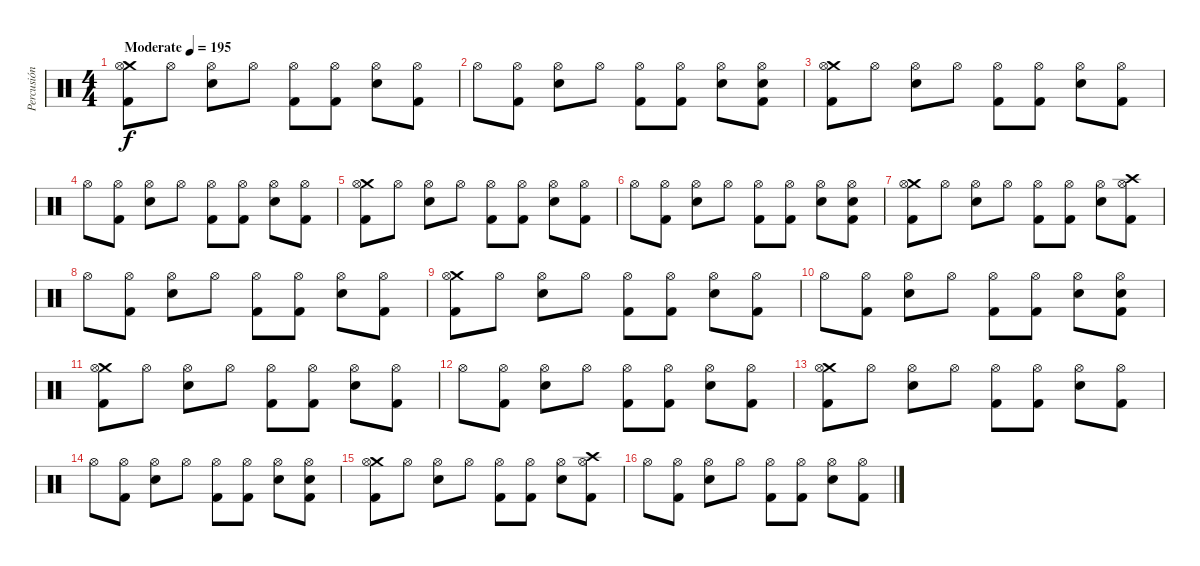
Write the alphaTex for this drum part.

\track ("Percusión" "Percusión") {instrument percussion}
\staff {score}
\articulation defaults
\ts (4 4)
\tempo (195 "Moderate")
\clef neutral
\ks c
("Crash medium (hit)" "Hi-Hat (open)" "Kick (hit) 2").8{dy f} "Hi-Hat (open)".8 ("Hi-Hat (open)" "Snare (hit) 2").8 "Hi-Hat (open)".8 ("Hi-Hat (open)" "Kick (hit) 2").8 ("Hi-Hat (open)" "Kick (hit) 2").8 ("Hi-Hat (open)" "Snare (hit) 2").8 ("Hi-Hat (open)" "Kick (hit) 2").8 |
"Hi-Hat (open)".8 ("Hi-Hat (open)" "Kick (hit) 2").8 ("Hi-Hat (open)" "Snare (hit) 2").8 "Hi-Hat (open)".8 ("Hi-Hat (open)" "Kick (hit) 2").8 ("Hi-Hat (open)" "Kick (hit) 2").8 ("Hi-Hat (open)" "Snare (hit) 2").8 ("Hi-Hat (open)" "Snare (hit) 2" "Kick (hit) 2").8 |
("Crash medium (hit)" "Hi-Hat (open)" "Kick (hit) 2").8 "Hi-Hat (open)".8 ("Hi-Hat (open)" "Snare (hit) 2").8 "Hi-Hat (open)".8 ("Hi-Hat (open)" "Kick (hit) 2").8 ("Hi-Hat (open)" "Kick (hit) 2").8 ("Hi-Hat (open)" "Snare (hit) 2").8 ("Hi-Hat (open)" "Kick (hit) 2").8 |
"Hi-Hat (open)".8 ("Hi-Hat (open)" "Kick (hit) 2").8 ("Hi-Hat (open)" "Snare (hit) 2").8 "Hi-Hat (open)".8 ("Hi-Hat (open)" "Kick (hit) 2").8 ("Hi-Hat (open)" "Kick (hit) 2").8 ("Hi-Hat (open)" "Snare (hit) 2").8 ("Hi-Hat (open)" "Kick (hit) 2").8 |
("Crash medium (hit)" "Hi-Hat (open)" "Kick (hit) 2").8 "Hi-Hat (open)".8 ("Hi-Hat (open)" "Snare (hit) 2").8 "Hi-Hat (open)".8 ("Hi-Hat (open)" "Kick (hit) 2").8 ("Hi-Hat (open)" "Kick (hit) 2").8 ("Hi-Hat (open)" "Snare (hit) 2").8 ("Hi-Hat (open)" "Kick (hit) 2").8 |
"Hi-Hat (open)".8 ("Hi-Hat (open)" "Kick (hit) 2").8 ("Hi-Hat (open)" "Snare (hit) 2").8 "Hi-Hat (open)".8 ("Hi-Hat (open)" "Kick (hit) 2").8 ("Hi-Hat (open)" "Kick (hit) 2").8 ("Hi-Hat (open)" "Snare (hit) 2").8 ("Hi-Hat (open)" "Snare (hit) 2" "Kick (hit) 2").8 |
("Crash medium (hit)" "Hi-Hat (open)" "Kick (hit) 2").8 "Hi-Hat (open)".8 ("Hi-Hat (open)" "Snare (hit) 2").8 "Hi-Hat (open)".8 ("Hi-Hat (open)" "Kick (hit) 2").8 ("Hi-Hat (open)" "Kick (hit) 2").8 ("Hi-Hat (open)" "Snare (hit) 2").8 ("Crash high (hit)" "Hi-Hat (open)" "Kick (hit) 2").8 |
"Hi-Hat (open)".8 ("Hi-Hat (open)" "Kick (hit) 2").8 ("Hi-Hat (open)" "Snare (hit) 2").8 "Hi-Hat (open)".8 ("Hi-Hat (open)" "Kick (hit) 2").8 ("Hi-Hat (open)" "Kick (hit) 2").8 ("Hi-Hat (open)" "Snare (hit) 2").8 ("Hi-Hat (open)" "Kick (hit) 2").8 |
("Crash medium (hit)" "Hi-Hat (open)" "Kick (hit) 2").8 "Hi-Hat (open)".8 ("Hi-Hat (open)" "Snare (hit) 2").8 "Hi-Hat (open)".8 ("Hi-Hat (open)" "Kick (hit) 2").8 ("Hi-Hat (open)" "Kick (hit) 2").8 ("Hi-Hat (open)" "Snare (hit) 2").8 ("Hi-Hat (open)" "Kick (hit) 2").8 |
"Hi-Hat (open)".8 ("Hi-Hat (open)" "Kick (hit) 2").8 ("Hi-Hat (open)" "Snare (hit) 2").8 "Hi-Hat (open)".8 ("Hi-Hat (open)" "Kick (hit) 2").8 ("Hi-Hat (open)" "Kick (hit) 2").8 ("Hi-Hat (open)" "Snare (hit) 2").8 ("Hi-Hat (open)" "Snare (hit) 2" "Kick (hit) 2").8 |
("Crash medium (hit)" "Hi-Hat (open)" "Kick (hit) 2").8 "Hi-Hat (open)".8 ("Hi-Hat (open)" "Snare (hit) 2").8 "Hi-Hat (open)".8 ("Hi-Hat (open)" "Kick (hit) 2").8 ("Hi-Hat (open)" "Kick (hit) 2").8 ("Hi-Hat (open)" "Snare (hit) 2").8 ("Hi-Hat (open)" "Kick (hit) 2").8 |
"Hi-Hat (open)".8 ("Hi-Hat (open)" "Kick (hit) 2").8 ("Hi-Hat (open)" "Snare (hit) 2").8 "Hi-Hat (open)".8 ("Hi-Hat (open)" "Kick (hit) 2").8 ("Hi-Hat (open)" "Kick (hit) 2").8 ("Hi-Hat (open)" "Snare (hit) 2").8 ("Hi-Hat (open)" "Kick (hit) 2").8 |
("Crash medium (hit)" "Hi-Hat (open)" "Kick (hit) 2").8 "Hi-Hat (open)".8 ("Hi-Hat (open)" "Snare (hit) 2").8 "Hi-Hat (open)".8 ("Hi-Hat (open)" "Kick (hit) 2").8 ("Hi-Hat (open)" "Kick (hit) 2").8 ("Hi-Hat (open)" "Snare (hit) 2").8 ("Hi-Hat (open)" "Kick (hit) 2").8 |
"Hi-Hat (open)".8 ("Hi-Hat (open)" "Kick (hit) 2").8 ("Hi-Hat (open)" "Snare (hit) 2").8 "Hi-Hat (open)".8 ("Hi-Hat (open)" "Kick (hit) 2").8 ("Hi-Hat (open)" "Kick (hit) 2").8 ("Hi-Hat (open)" "Snare (hit) 2").8 ("Hi-Hat (open)" "Snare (hit) 2" "Kick (hit) 2").8 |
("Crash medium (hit)" "Hi-Hat (open)" "Kick (hit) 2").8 "Hi-Hat (open)".8 ("Hi-Hat (open)" "Snare (hit) 2").8 "Hi-Hat (open)".8 ("Hi-Hat (open)" "Kick (hit) 2").8 ("Hi-Hat (open)" "Kick (hit) 2").8 ("Hi-Hat (open)" "Snare (hit) 2").8 ("Crash high (hit)" "Hi-Hat (open)" "Kick (hit) 2").8 |
"Hi-Hat (open)".8 ("Hi-Hat (open)" "Kick (hit) 2").8 ("Hi-Hat (open)" "Snare (hit) 2").8 "Hi-Hat (open)".8 ("Hi-Hat (open)" "Kick (hit) 2").8 ("Hi-Hat (open)" "Kick (hit) 2").8 ("Hi-Hat (open)" "Snare (hit) 2").8 ("Hi-Hat (open)" "Kick (hit) 2").8
